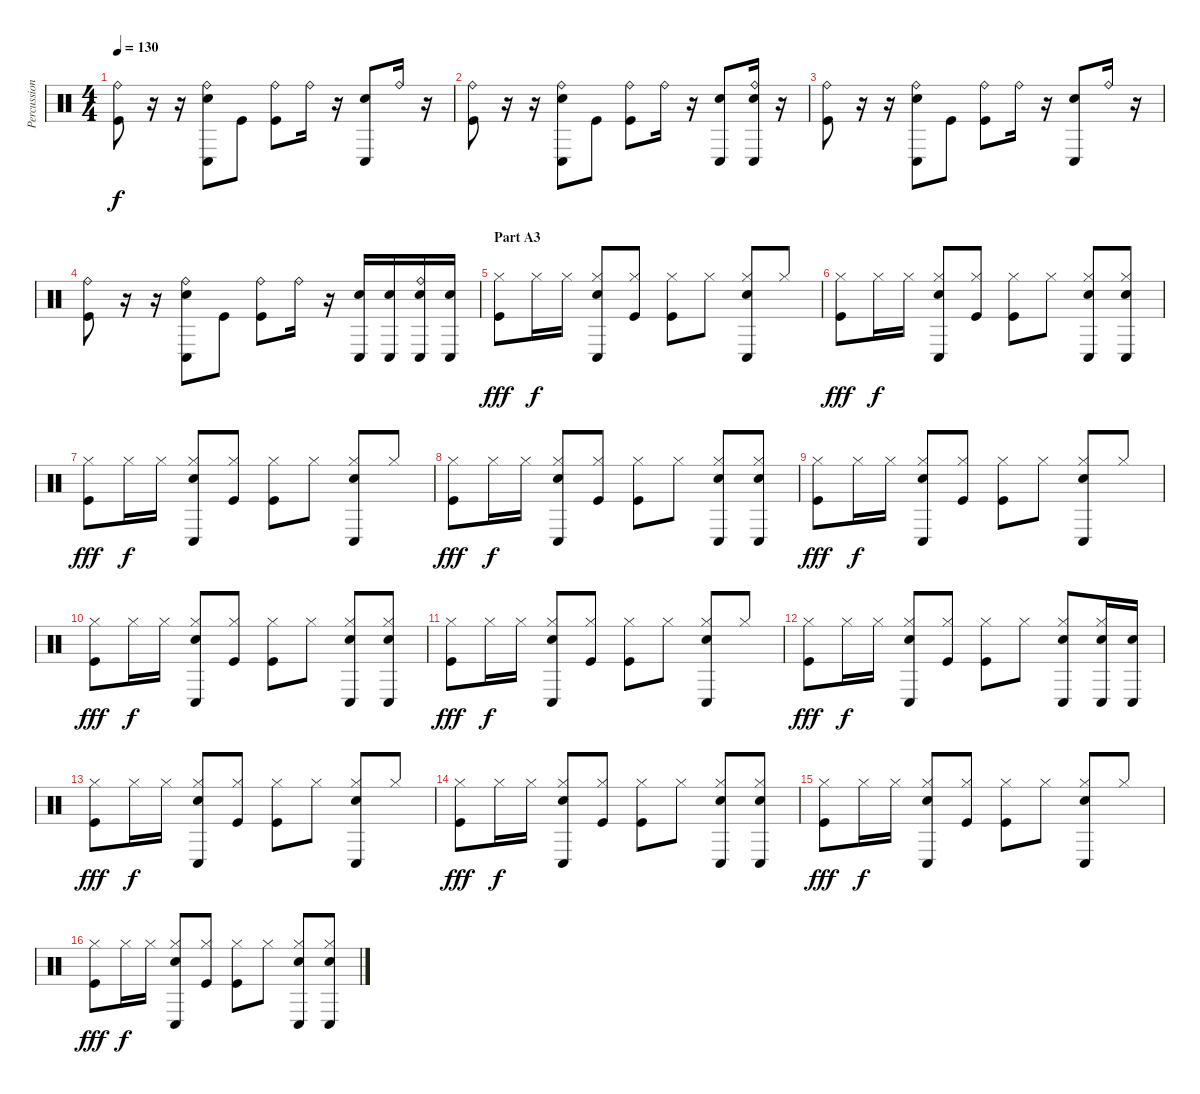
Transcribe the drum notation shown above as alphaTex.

\track ("Percussion" "Percussion") {instrument percussion}
\staff {score}
\articulation defaults
\ts (4 4)
\tempo 130
\clef neutral
\ks c
("Ride (bell)" "Kick (hit)").8{dy f} r.16 r.16 ("Ride (bell)" "Conga low (hit)" "Electric Snare (hit)").8 "Kick (hit)".8 ("Ride (bell)" "Kick (hit)").8 "Ride (bell)".16 r.16 ("Conga low (hit)" "Electric Snare (hit)").8 "Ride (bell)".16 r.16 |
("Ride (bell)" "Kick (hit)").8 r.16 r.16 ("Ride (bell)" "Conga low (hit)" "Electric Snare (hit)").8 "Kick (hit)".8 ("Ride (bell)" "Kick (hit)").8 "Ride (bell)".16 r.16 ("Conga low (hit)" "Electric Snare (hit)").8 ("Ride (bell)" "Conga low (hit)" "Electric Snare (hit)").16 r.16 |
("Ride (bell)" "Kick (hit)").8 r.16 r.16 ("Ride (bell)" "Conga low (hit)" "Electric Snare (hit)").8 "Kick (hit)".8 ("Ride (bell)" "Kick (hit)").8 "Ride (bell)".16 r.16 ("Conga low (hit)" "Electric Snare (hit)").8 "Ride (bell)".16 r.16 |
("Ride (bell)" "Kick (hit)").8 r.16 r.16 ("Ride (bell)" "Conga low (hit)" "Electric Snare (hit)").8 "Kick (hit)".8 ("Ride (bell)" "Kick (hit)").8 "Ride (bell)".16 r.16 ("Conga low (hit)" "Electric Snare (hit)").16 ("Conga low (hit)" "Electric Snare (hit)").16 ("Ride (bell)" "Conga low (hit)" "Electric Snare (hit)").16 ("Conga low (hit)" "Electric Snare (hit)").16 |
\section ("" "Part A3")
("Hi-Hat (closed)" "Kick (hit)").8{dy fff} "Hi-Hat (closed)".16{dy f} "Hi-Hat (closed)".16 ("Hi-Hat (closed)" "Conga low (hit)" "Electric Snare (hit)").8 ("Hi-Hat (closed)" "Kick (hit)").8 ("Hi-Hat (closed)" "Kick (hit)").8 "Hi-Hat (closed)".8 ("Hi-Hat (closed)" "Conga low (hit)" "Electric Snare (hit)").8 "Hi-Hat (closed)".8 |
("Hi-Hat (closed)" "Kick (hit)").8{dy fff} "Hi-Hat (closed)".16{dy f} "Hi-Hat (closed)".16 ("Hi-Hat (closed)" "Conga low (hit)" "Electric Snare (hit)").8 ("Hi-Hat (closed)" "Kick (hit)").8 ("Hi-Hat (closed)" "Kick (hit)").8 "Hi-Hat (closed)".8 ("Hi-Hat (closed)" "Conga low (hit)" "Electric Snare (hit)").8 ("Hi-Hat (closed)" "Conga low (hit)" "Electric Snare (hit)").8 |
("Hi-Hat (closed)" "Kick (hit)").8{dy fff} "Hi-Hat (closed)".16{dy f} "Hi-Hat (closed)".16 ("Hi-Hat (closed)" "Conga low (hit)" "Electric Snare (hit)").8 ("Hi-Hat (closed)" "Kick (hit)").8 ("Hi-Hat (closed)" "Kick (hit)").8 "Hi-Hat (closed)".8 ("Hi-Hat (closed)" "Conga low (hit)" "Electric Snare (hit)").8 "Hi-Hat (closed)".8 |
("Hi-Hat (closed)" "Kick (hit)").8{dy fff} "Hi-Hat (closed)".16{dy f} "Hi-Hat (closed)".16 ("Hi-Hat (closed)" "Conga low (hit)" "Electric Snare (hit)").8 ("Hi-Hat (closed)" "Kick (hit)").8 ("Hi-Hat (closed)" "Kick (hit)").8 "Hi-Hat (closed)".8 ("Hi-Hat (closed)" "Conga low (hit)" "Electric Snare (hit)").8 ("Hi-Hat (closed)" "Conga low (hit)" "Electric Snare (hit)").8 |
("Hi-Hat (closed)" "Kick (hit)").8{dy fff} "Hi-Hat (closed)".16{dy f} "Hi-Hat (closed)".16 ("Hi-Hat (closed)" "Conga low (hit)" "Electric Snare (hit)").8 ("Hi-Hat (closed)" "Kick (hit)").8 ("Hi-Hat (closed)" "Kick (hit)").8 "Hi-Hat (closed)".8 ("Hi-Hat (closed)" "Conga low (hit)" "Electric Snare (hit)").8 "Hi-Hat (closed)".8 |
("Hi-Hat (closed)" "Kick (hit)").8{dy fff} "Hi-Hat (closed)".16{dy f} "Hi-Hat (closed)".16 ("Hi-Hat (closed)" "Conga low (hit)" "Electric Snare (hit)").8 ("Hi-Hat (closed)" "Kick (hit)").8 ("Hi-Hat (closed)" "Kick (hit)").8 "Hi-Hat (closed)".8 ("Hi-Hat (closed)" "Conga low (hit)" "Electric Snare (hit)").8 ("Hi-Hat (closed)" "Conga low (hit)" "Electric Snare (hit)").8 |
("Hi-Hat (closed)" "Kick (hit)").8{dy fff} "Hi-Hat (closed)".16{dy f} "Hi-Hat (closed)".16 ("Hi-Hat (closed)" "Conga low (hit)" "Electric Snare (hit)").8 ("Hi-Hat (closed)" "Kick (hit)").8 ("Hi-Hat (closed)" "Kick (hit)").8 "Hi-Hat (closed)".8 ("Hi-Hat (closed)" "Conga low (hit)" "Electric Snare (hit)").8 "Hi-Hat (closed)".8 |
("Hi-Hat (closed)" "Kick (hit)").8{dy fff} "Hi-Hat (closed)".16{dy f} "Hi-Hat (closed)".16 ("Hi-Hat (closed)" "Conga low (hit)" "Electric Snare (hit)").8 ("Hi-Hat (closed)" "Kick (hit)").8 ("Hi-Hat (closed)" "Kick (hit)").8 "Hi-Hat (closed)".8 ("Hi-Hat (closed)" "Conga low (hit)" "Electric Snare (hit)").8 ("Hi-Hat (closed)" "Conga low (hit)" "Electric Snare (hit)").16 ("Conga low (hit)" "Electric Snare (hit)").16 |
("Hi-Hat (closed)" "Kick (hit)").8{dy fff} "Hi-Hat (closed)".16{dy f} "Hi-Hat (closed)".16 ("Hi-Hat (closed)" "Conga low (hit)" "Electric Snare (hit)").8 ("Hi-Hat (closed)" "Kick (hit)").8 ("Hi-Hat (closed)" "Kick (hit)").8 "Hi-Hat (closed)".8 ("Hi-Hat (closed)" "Conga low (hit)" "Electric Snare (hit)").8 "Hi-Hat (closed)".8 |
("Hi-Hat (closed)" "Kick (hit)").8{dy fff} "Hi-Hat (closed)".16{dy f} "Hi-Hat (closed)".16 ("Hi-Hat (closed)" "Conga low (hit)" "Electric Snare (hit)").8 ("Hi-Hat (closed)" "Kick (hit)").8 ("Hi-Hat (closed)" "Kick (hit)").8 "Hi-Hat (closed)".8 ("Hi-Hat (closed)" "Conga low (hit)" "Electric Snare (hit)").8 ("Hi-Hat (closed)" "Conga low (hit)" "Electric Snare (hit)").8 |
("Hi-Hat (closed)" "Kick (hit)").8{dy fff} "Hi-Hat (closed)".16{dy f} "Hi-Hat (closed)".16 ("Hi-Hat (closed)" "Conga low (hit)" "Electric Snare (hit)").8 ("Hi-Hat (closed)" "Kick (hit)").8 ("Hi-Hat (closed)" "Kick (hit)").8 "Hi-Hat (closed)".8 ("Hi-Hat (closed)" "Conga low (hit)" "Electric Snare (hit)").8 "Hi-Hat (closed)".8 |
("Hi-Hat (closed)" "Kick (hit)").8{dy fff} "Hi-Hat (closed)".16{dy f} "Hi-Hat (closed)".16 ("Hi-Hat (closed)" "Conga low (hit)" "Electric Snare (hit)").8 ("Hi-Hat (closed)" "Kick (hit)").8 ("Hi-Hat (closed)" "Kick (hit)").8 "Hi-Hat (closed)".8 ("Hi-Hat (closed)" "Conga low (hit)" "Electric Snare (hit)").8 ("Hi-Hat (closed)" "Conga low (hit)" "Electric Snare (hit)").8
